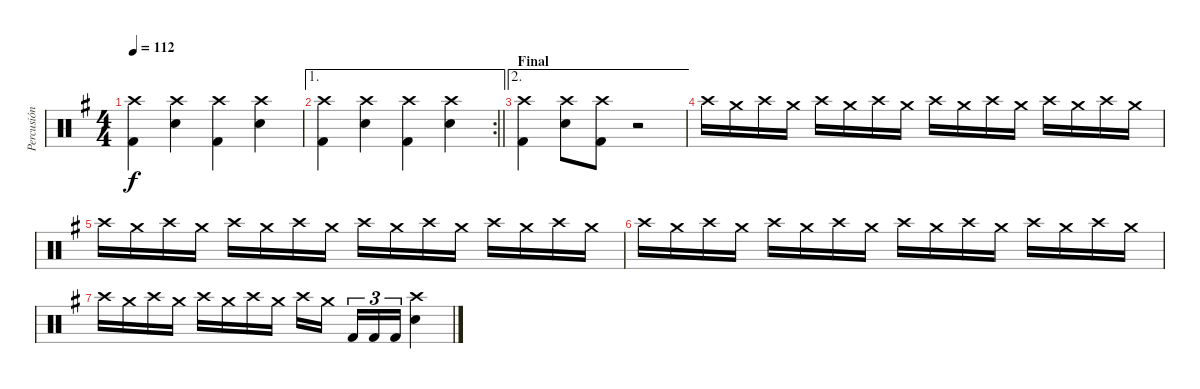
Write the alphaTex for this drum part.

\track ("Percusión" "Percusión") {instrument percussion}
\staff {score}
\articulation defaults
\ts (4 4)
\tempo 112
\clef neutral
\ks g
("Crash high (hit)" "Kick (hit) 2").4{dy f} ("Crash high (hit)" "Electric Snare (hit)").4 ("Crash high (hit)" "Kick (hit) 2").4 ("Crash high (hit)" "Electric Snare (hit)").4 |
\ae 1
\rc 2
\barLineRight lightlight
("Crash high (hit)" "Kick (hit) 2").4 ("Crash high (hit)" "Electric Snare (hit)").4 ("Crash high (hit)" "Kick (hit) 2").4 ("Crash high (hit)" "Electric Snare (hit)").4 |
\ae 2
\section ("" "Final")
("Crash high (hit)" "Kick (hit) 2").4 ("Crash high (hit)" "Electric Snare (hit)").8 ("Crash high (hit)" "Kick (hit) 2").8 r.2 |
"Crash high (hit)".16 "Crash medium (hit)".16 "Crash high (hit)".16 "Crash medium (hit)".16 "Crash high (hit)".16 "Crash medium (hit)".16 "Crash high (hit)".16 "Crash medium (hit)".16 "Crash high (hit)".16 "Crash medium (hit)".16 "Crash high (hit)".16 "Crash medium (hit)".16 "Crash high (hit)".16 "Crash medium (hit)".16 "Crash high (hit)".16 "Crash medium (hit)".16 |
"Crash high (hit)".16 "Crash medium (hit)".16 "Crash high (hit)".16 "Crash medium (hit)".16 "Crash high (hit)".16 "Crash medium (hit)".16 "Crash high (hit)".16 "Crash medium (hit)".16 "Crash high (hit)".16 "Crash medium (hit)".16 "Crash high (hit)".16 "Crash medium (hit)".16 "Crash high (hit)".16 "Crash medium (hit)".16 "Crash high (hit)".16 "Crash medium (hit)".16 |
"Crash high (hit)".16 "Crash medium (hit)".16 "Crash high (hit)".16 "Crash medium (hit)".16 "Crash high (hit)".16 "Crash medium (hit)".16 "Crash high (hit)".16 "Crash medium (hit)".16 "Crash high (hit)".16 "Crash medium (hit)".16 "Crash high (hit)".16 "Crash medium (hit)".16 "Crash high (hit)".16 "Crash medium (hit)".16 "Crash high (hit)".16 "Crash medium (hit)".16 |
"Crash high (hit)".16 "Crash medium (hit)".16 "Crash high (hit)".16 "Crash medium (hit)".16 "Crash high (hit)".16 "Crash medium (hit)".16 "Crash high (hit)".16 "Crash medium (hit)".16 "Crash high (hit)".16 "Crash medium (hit)".16{beam splitsecondary} "Kick (hit) 2".16{tu (3 2)} "Kick (hit) 2".16{tu (3 2)} "Kick (hit) 2".16{tu (3 2)} ("Crash high (hit)" "Electric Snare (hit)").4
